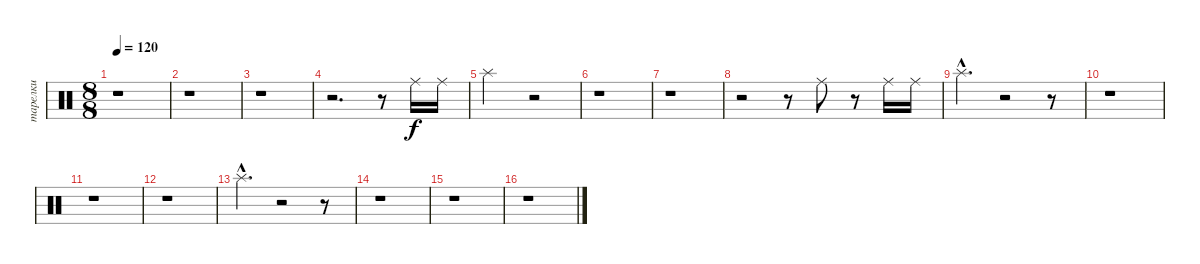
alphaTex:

\track ("тарелки" "тарелки") {instrument percussion}
\staff {score}
\articulation defaults
\ts (8 8)
\tempo 120
\clef neutral
\ks c
r.1{dy f} |
r.1 |
r.1 |
r.2{d} r.8 "Ride (middle)".16 "Ride (middle)".16 |
"Splash (hit)".2 r.2 |
r.1 |
r.1 |
r.2 r.8 "Ride (middle)".8 r.8 "Ride (middle)".16 "Ride (middle)".16 |
"Splash (hit)"{hac}.4{d} r.2 r.8 |
r.1 |
r.1 |
r.1 |
"Splash (hit)"{hac}.4{d} r.2 r.8 |
r.1 |
r.1 |
r.1
